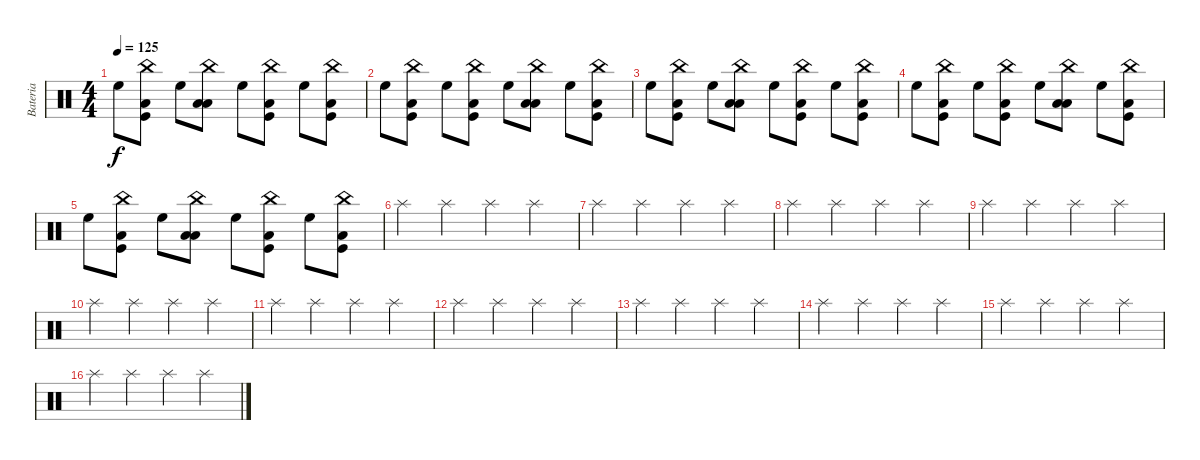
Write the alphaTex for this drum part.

\track ("Bateria" "Bateria") {instrument percussion}
\staff {score}
\articulation defaults
\ts (4 4)
\tempo 125
\clef neutral
\ks c "High Floor Tom (hit)".8{dy f}
("Low Tom (hit)" "Kick (hit)" "China (hit)").8 "High Floor Tom (hit)".8 ("Low Tom (hit)" "Low Tom (hit)" "China (hit)").8 "High Floor Tom (hit)".8 ("Low Tom (hit)" "Kick (hit)" "China (hit)").8 "High Floor Tom (hit)".8 ("Low Tom (hit)" "Kick (hit)" "China (hit)").8 |
"High Floor Tom (hit)".8 ("Low Tom (hit)" "Kick (hit)" "China (hit)").8 "High Floor Tom (hit)".8 ("Low Tom (hit)" "Kick (hit)" "China (hit)").8 "High Floor Tom (hit)".8 ("Low Tom (hit)" "Low Tom (hit)" "China (hit)").8 "High Floor Tom (hit)".8 ("Low Tom (hit)" "Kick (hit)" "China (hit)").8 |
"High Floor Tom (hit)".8 ("Low Tom (hit)" "Kick (hit)" "China (hit)").8 "High Floor Tom (hit)".8 ("Low Tom (hit)" "Low Tom (hit)" "China (hit)").8 "High Floor Tom (hit)".8 ("Low Tom (hit)" "Kick (hit)" "China (hit)").8 "High Floor Tom (hit)".8 ("Low Tom (hit)" "Kick (hit)" "China (hit)").8 |
"High Floor Tom (hit)".8 ("Low Tom (hit)" "Kick (hit)" "China (hit)").8 "High Floor Tom (hit)".8 ("Low Tom (hit)" "Kick (hit)" "China (hit)").8 "High Floor Tom (hit)".8 ("Low Tom (hit)" "Low Tom (hit)" "China (hit)").8 "High Floor Tom (hit)".8 ("Low Tom (hit)" "Kick (hit)" "China (hit)").8 |
"High Floor Tom (hit)".8 ("Low Tom (hit)" "Kick (hit)" "China (hit)").8 "High Floor Tom (hit)".8 ("Low Tom (hit)" "Low Tom (hit)" "China (hit)").8 "High Floor Tom (hit)".8 ("Low Tom (hit)" "Kick (hit)" "China (hit)").8 "High Floor Tom (hit)".8 ("Low Tom (hit)" "Kick (hit)" "China (hit)").8 |
"Splash (hit)".4 "Splash (hit)".4 "Splash (hit)".4 "Splash (hit)".4 |
"Splash (hit)".4 "Splash (hit)".4 "Splash (hit)".4 "Splash (hit)".4 |
"Splash (hit)".4 "Splash (hit)".4 "Splash (hit)".4 "Splash (hit)".4 |
"Splash (hit)".4 "Splash (hit)".4 "Splash (hit)".4 "Splash (hit)".4 |
"Splash (hit)".4 "Splash (hit)".4 "Splash (hit)".4 "Splash (hit)".4 |
"Splash (hit)".4 "Splash (hit)".4 "Splash (hit)".4 "Splash (hit)".4 |
"Splash (hit)".4 "Splash (hit)".4 "Splash (hit)".4 "Splash (hit)".4 |
"Splash (hit)".4 "Splash (hit)".4 "Splash (hit)".4 "Splash (hit)".4 |
"Splash (hit)".4 "Splash (hit)".4 "Splash (hit)".4 "Splash (hit)".4 |
"Splash (hit)".4 "Splash (hit)".4 "Splash (hit)".4 "Splash (hit)".4 |
"Splash (hit)".4 "Splash (hit)".4 "Splash (hit)".4 "Splash (hit)".4
